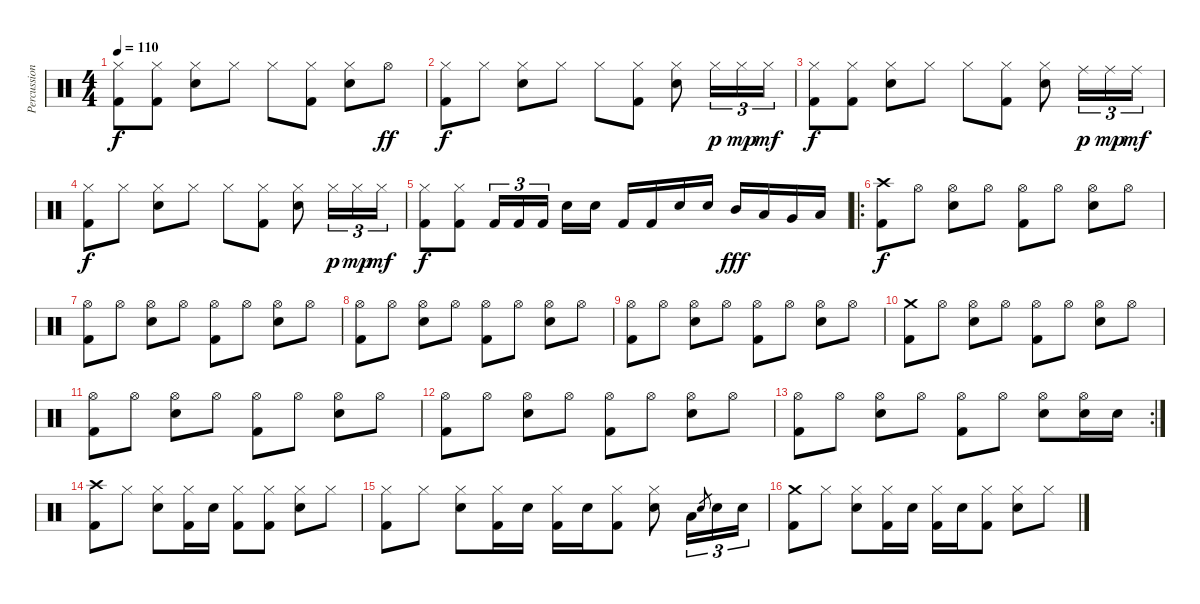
\track ("Percussions" "Percussion") {instrument percussion}
\staff {score}
\articulation defaults
\ts (4 4)
\tempo 110
\clef neutral
\ks c
("Hi-Hat (closed)" "Kick (hit) 2").8{dy f} ("Hi-Hat (closed)" "Kick (hit) 2").8 ("Hi-Hat (closed)" "Electric Snare (hit)").8 "Hi-Hat (closed)".8 "Hi-Hat (closed)".8 ("Hi-Hat (closed)" "Kick (hit) 2").8 ("Hi-Hat (closed)" "Electric Snare (hit)").8 "Hi-Hat (open)".8{dy ff} |
("Hi-Hat (closed)" "Kick (hit) 2").8{dy f} "Hi-Hat (closed)".8 ("Hi-Hat (closed)" "Electric Snare (hit)").8 "Hi-Hat (closed)".8 "Hi-Hat (closed)".8 ("Hi-Hat (closed)" "Kick (hit) 2").8 ("Hi-Hat (closed)" "Electric Snare (hit)").8 "Hi-Hat (closed)".16{tu (3 2) dy p} "Hi-Hat (closed)".16{tu (3 2) dy mp} "Hi-Hat (closed)".16{tu (3 2) dy mf} |
("Hi-Hat (closed)" "Kick (hit) 2").8{dy f} ("Hi-Hat (closed)" "Kick (hit) 2").8 ("Hi-Hat (closed)" "Electric Snare (hit)").8 "Hi-Hat (closed)".8 "Hi-Hat (closed)".8 ("Hi-Hat (closed)" "Kick (hit) 2").8 ("Hi-Hat (closed)" "Electric Snare (hit)").8 "Ride (middle)".16{tu (3 2) dy p} "Ride (middle)".16{tu (3 2) dy mp} "Ride (middle)".16{tu (3 2) dy mf} |
("Hi-Hat (closed)" "Kick (hit) 2").8{dy f} "Hi-Hat (closed)".8 ("Hi-Hat (closed)" "Electric Snare (hit)").8 "Hi-Hat (closed)".8 "Hi-Hat (closed)".8 ("Hi-Hat (closed)" "Kick (hit) 2").8 ("Hi-Hat (closed)" "Electric Snare (hit)").8 "Hi-Hat (closed)".16{tu (3 2) dy p} "Hi-Hat (closed)".16{tu (3 2) dy mp} "Hi-Hat (closed)".16{tu (3 2) dy mf} |
("Hi-Hat (closed)" "Kick (hit) 2").8{dy f} ("Hi-Hat (closed)" "Kick (hit) 2").8 "Kick (hit) 2".16{tu (3 2)} "Kick (hit) 2".16{tu (3 2)} "Kick (hit) 2".16{tu (3 2)} "Electric Snare (hit)".16 "Electric Snare (hit)".16 "Kick (hit) 2".16 "Kick (hit) 2".16 "Electric Snare (hit)".16 "Electric Snare (hit)".16 "Mid Tom (hit)".16{dy fff} "Low Tom (hit)".16 "Very Low Tom (hit)".16 "Low Floor Tom (hit)".16 |
\ro
("Crash high (hit)" "Kick (hit) 2").8{dy f} "Hi-Hat (open)".8 ("Hi-Hat (open)" "Electric Snare (hit)").8 "Hi-Hat (open)".8 ("Hi-Hat (open)" "Kick (hit) 2").8 "Hi-Hat (open)".8 ("Hi-Hat (open)" "Electric Snare (hit)").8 "Hi-Hat (open)".8 |
("Hi-Hat (open)" "Kick (hit) 2").8 "Hi-Hat (open)".8 ("Hi-Hat (open)" "Electric Snare (hit)").8 "Hi-Hat (open)".8 ("Hi-Hat (open)" "Kick (hit) 2").8 "Hi-Hat (open)".8 ("Hi-Hat (open)" "Electric Snare (hit)").8 "Hi-Hat (open)".8 |
("Hi-Hat (open)" "Kick (hit) 2").8 "Hi-Hat (open)".8 ("Hi-Hat (open)" "Electric Snare (hit)").8 "Hi-Hat (open)".8 ("Hi-Hat (open)" "Kick (hit) 2").8 "Hi-Hat (open)".8 ("Hi-Hat (open)" "Electric Snare (hit)").8 "Hi-Hat (open)".8 |
("Hi-Hat (open)" "Kick (hit) 2").8 "Hi-Hat (open)".8 ("Hi-Hat (open)" "Electric Snare (hit)").8 "Hi-Hat (open)".8 ("Hi-Hat (open)" "Kick (hit) 2").8 "Hi-Hat (open)".8 ("Hi-Hat (open)" "Electric Snare (hit)").8 "Hi-Hat (open)".8 |
("Crash medium (hit)" "Kick (hit) 2").8 "Hi-Hat (open)".8 ("Hi-Hat (open)" "Electric Snare (hit)").8 "Hi-Hat (open)".8 ("Hi-Hat (open)" "Kick (hit) 2").8 "Hi-Hat (open)".8 ("Hi-Hat (open)" "Electric Snare (hit)").8 "Hi-Hat (open)".8 |
("Hi-Hat (open)" "Kick (hit) 2").8 "Hi-Hat (open)".8 ("Hi-Hat (open)" "Electric Snare (hit)").8 "Hi-Hat (open)".8 ("Hi-Hat (open)" "Kick (hit) 2").8 "Hi-Hat (open)".8 ("Hi-Hat (open)" "Electric Snare (hit)").8 "Hi-Hat (open)".8 |
("Hi-Hat (open)" "Kick (hit) 2").8 "Hi-Hat (open)".8 ("Hi-Hat (open)" "Electric Snare (hit)").8 "Hi-Hat (open)".8 ("Hi-Hat (open)" "Kick (hit) 2").8 "Hi-Hat (open)".8 ("Hi-Hat (open)" "Electric Snare (hit)").8 "Hi-Hat (open)".8 |
\rc 2
("Hi-Hat (open)" "Kick (hit) 2").8 "Hi-Hat (open)".8 ("Hi-Hat (open)" "Electric Snare (hit)").8 "Hi-Hat (open)".8 ("Hi-Hat (open)" "Kick (hit) 2").8 "Hi-Hat (open)".8 ("Hi-Hat (open)" "Electric Snare (hit)").8 ("Hi-Hat (open)" "Electric Snare (hit)").16 "Electric Snare (hit)".16 |
("Crash high (hit)" "Kick (hit) 2").8{volume 3} "Hi-Hat (closed)".8 ("Hi-Hat (closed)" "Electric Snare (hit)").8 ("Hi-Hat (closed)" "Kick (hit) 2").16 "Electric Snare (hit)".16 ("Hi-Hat (closed)" "Kick (hit) 2").8 ("Hi-Hat (closed)" "Kick (hit) 2").8 ("Hi-Hat (closed)" "Electric Snare (hit)").8 "Hi-Hat (closed)".8 |
("Hi-Hat (closed)" "Kick (hit) 2").8 "Hi-Hat (closed)".8 ("Hi-Hat (closed)" "Electric Snare (hit)").8 ("Hi-Hat (closed)" "Kick (hit) 2").16 "Electric Snare (hit)".16 ("Hi-Hat (closed)" "Kick (hit) 2").16 "Electric Snare (hit)".16 ("Hi-Hat (closed)" "Kick (hit) 2").8 ("Hi-Hat (closed)" "Electric Snare (hit)").8 "Low Floor Tom (hit)".16{tu (3 2)} "Electric Snare (hit)".8{gr} "Electric Snare (hit)".16{tu (3 2)} "Electric Snare (hit)".16{tu (3 2)} |
("Crash medium (hit)" "Kick (hit) 2").8 "Hi-Hat (closed)".8 ("Hi-Hat (closed)" "Electric Snare (hit)").8 ("Hi-Hat (closed)" "Kick (hit) 2").16 "Electric Snare (hit)".16 ("Hi-Hat (closed)" "Kick (hit) 2").16 "Electric Snare (hit)".16 ("Hi-Hat (closed)" "Kick (hit) 2").8 ("Hi-Hat (closed)" "Electric Snare (hit)").8 "Hi-Hat (closed)".8
